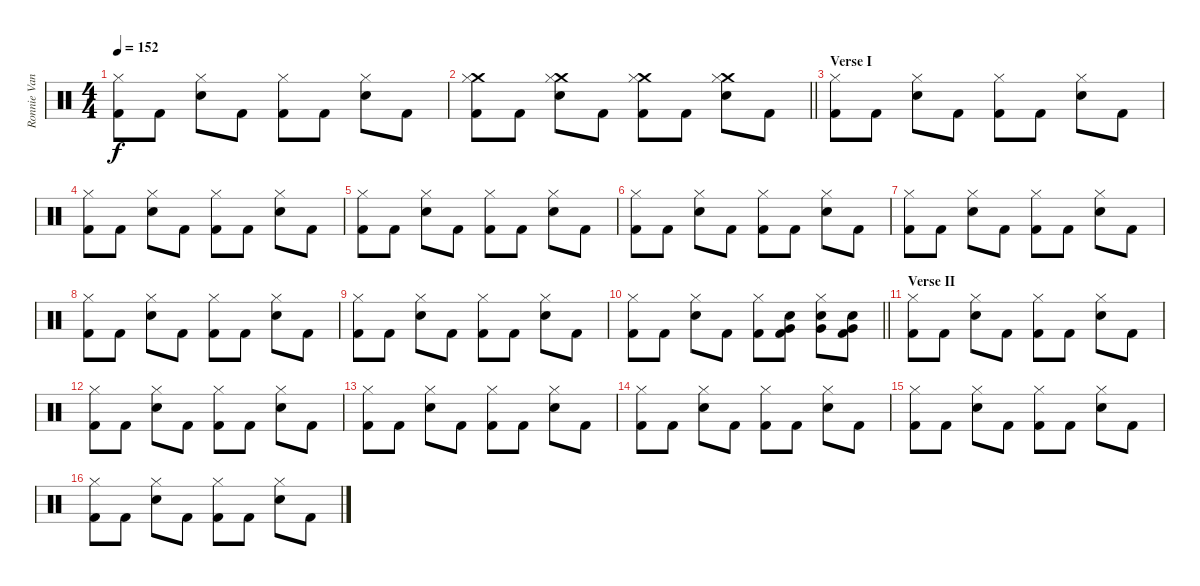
\track ("Ronnie Vannucci Jr." "Ronnie Van") {instrument percussion}
\staff
\articulation defaults
\ts (4 4)
\tempo 152
\clef neutral
\ks c
("Hi-Hat (closed)" "Kick (hit) 2").8{dy f} "Kick (hit) 2".8 ("Hi-Hat (closed)" "Electric Snare (hit)").8 "Kick (hit) 2".8 ("Hi-Hat (closed)" "Kick (hit) 2").8 "Kick (hit) 2".8 ("Hi-Hat (closed)" "Electric Snare (hit)").8 "Kick (hit) 2".8 |
\barLineRight lightlight
("Crash medium (hit)" "Hi-Hat (closed)" "Kick (hit) 2").8 "Kick (hit) 2".8 ("Crash medium (hit)" "Hi-Hat (closed)" "Electric Snare (hit)").8 "Kick (hit) 2".8 ("Crash medium (hit)" "Hi-Hat (closed)" "Kick (hit) 2").8 "Kick (hit) 2".8 ("Crash medium (hit)" "Hi-Hat (closed)" "Electric Snare (hit)").8 "Kick (hit) 2".8 |
\section ("" "Verse I")
("Hi-Hat (closed)" "Kick (hit) 2").8 "Kick (hit) 2".8 ("Hi-Hat (closed)" "Electric Snare (hit)").8 "Kick (hit) 2".8 ("Hi-Hat (closed)" "Kick (hit) 2").8 "Kick (hit) 2".8 ("Hi-Hat (closed)" "Electric Snare (hit)").8 "Kick (hit) 2".8 |
("Hi-Hat (closed)" "Kick (hit) 2").8 "Kick (hit) 2".8 ("Hi-Hat (closed)" "Electric Snare (hit)").8 "Kick (hit) 2".8 ("Hi-Hat (closed)" "Kick (hit) 2").8 "Kick (hit) 2".8 ("Hi-Hat (closed)" "Electric Snare (hit)").8 "Kick (hit) 2".8 |
("Hi-Hat (closed)" "Kick (hit) 2").8 "Kick (hit) 2".8 ("Hi-Hat (closed)" "Electric Snare (hit)").8 "Kick (hit) 2".8 ("Hi-Hat (closed)" "Kick (hit) 2").8 "Kick (hit) 2".8 ("Hi-Hat (closed)" "Electric Snare (hit)").8 "Kick (hit) 2".8 |
("Hi-Hat (closed)" "Kick (hit) 2").8 "Kick (hit) 2".8 ("Hi-Hat (closed)" "Electric Snare (hit)").8 "Kick (hit) 2".8 ("Hi-Hat (closed)" "Kick (hit) 2").8 "Kick (hit) 2".8 ("Hi-Hat (closed)" "Electric Snare (hit)").8 "Kick (hit) 2".8 |
("Hi-Hat (closed)" "Kick (hit) 2").8 "Kick (hit) 2".8 ("Hi-Hat (closed)" "Electric Snare (hit)").8 "Kick (hit) 2".8 ("Hi-Hat (closed)" "Kick (hit) 2").8 "Kick (hit) 2".8 ("Hi-Hat (closed)" "Electric Snare (hit)").8 "Kick (hit) 2".8 |
("Hi-Hat (closed)" "Kick (hit) 2").8 "Kick (hit) 2".8 ("Hi-Hat (closed)" "Electric Snare (hit)").8 "Kick (hit) 2".8 ("Hi-Hat (closed)" "Kick (hit) 2").8 "Kick (hit) 2".8 ("Hi-Hat (closed)" "Electric Snare (hit)").8 "Kick (hit) 2".8 |
("Hi-Hat (closed)" "Kick (hit) 2").8 "Kick (hit) 2".8 ("Hi-Hat (closed)" "Electric Snare (hit)").8 "Kick (hit) 2".8 ("Hi-Hat (closed)" "Kick (hit) 2").8 "Kick (hit) 2".8 ("Hi-Hat (closed)" "Electric Snare (hit)").8 "Kick (hit) 2".8 |
\barLineRight lightlight
("Hi-Hat (closed)" "Kick (hit) 2").8 "Kick (hit) 2".8 ("Hi-Hat (closed)" "Electric Snare (hit)").8 "Kick (hit) 2".8 ("Hi-Hat (closed)" "Kick (hit) 2").8 ("Very Low Tom (hit)" "Electric Snare (hit)" "Kick (hit) 2").8 ("Hi-Hat (closed)" "Very Low Tom (hit)" "Electric Snare (hit)").8 ("Very Low Tom (hit)" "Electric Snare (hit)" "Kick (hit) 2").8 |
\section ("" "Verse II")
("Hi-Hat (closed)" "Kick (hit) 2").8 "Kick (hit) 2".8 ("Hi-Hat (closed)" "Electric Snare (hit)").8 "Kick (hit) 2".8 ("Hi-Hat (closed)" "Kick (hit) 2").8 "Kick (hit) 2".8 ("Hi-Hat (closed)" "Electric Snare (hit)").8 "Kick (hit) 2".8 |
("Hi-Hat (closed)" "Kick (hit) 2").8 "Kick (hit) 2".8 ("Hi-Hat (closed)" "Electric Snare (hit)").8 "Kick (hit) 2".8 ("Hi-Hat (closed)" "Kick (hit) 2").8 "Kick (hit) 2".8 ("Hi-Hat (closed)" "Electric Snare (hit)").8 "Kick (hit) 2".8 |
("Hi-Hat (closed)" "Kick (hit) 2").8 "Kick (hit) 2".8 ("Hi-Hat (closed)" "Electric Snare (hit)").8 "Kick (hit) 2".8 ("Hi-Hat (closed)" "Kick (hit) 2").8 "Kick (hit) 2".8 ("Hi-Hat (closed)" "Electric Snare (hit)").8 "Kick (hit) 2".8 |
("Hi-Hat (closed)" "Kick (hit) 2").8 "Kick (hit) 2".8 ("Hi-Hat (closed)" "Electric Snare (hit)").8 "Kick (hit) 2".8 ("Hi-Hat (closed)" "Kick (hit) 2").8 "Kick (hit) 2".8 ("Hi-Hat (closed)" "Electric Snare (hit)").8 "Kick (hit) 2".8 |
("Hi-Hat (closed)" "Kick (hit) 2").8 "Kick (hit) 2".8 ("Hi-Hat (closed)" "Electric Snare (hit)").8 "Kick (hit) 2".8 ("Hi-Hat (closed)" "Kick (hit) 2").8 "Kick (hit) 2".8 ("Hi-Hat (closed)" "Electric Snare (hit)").8 "Kick (hit) 2".8 |
("Hi-Hat (closed)" "Kick (hit) 2").8 "Kick (hit) 2".8 ("Hi-Hat (closed)" "Electric Snare (hit)").8 "Kick (hit) 2".8 ("Hi-Hat (closed)" "Kick (hit) 2").8 "Kick (hit) 2".8 ("Hi-Hat (closed)" "Electric Snare (hit)").8 "Kick (hit) 2".8
